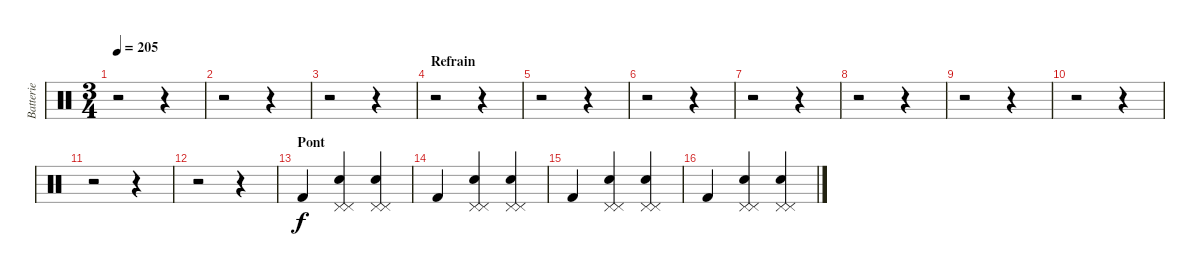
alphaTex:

\track ("Batterie" "Batterie") {instrument percussion}
\staff {score}
\articulation defaults
\ts (3 4)
\tempo 205
\clef neutral
\ks c
r.2{dy f} r.4 |
r.2 r.4 |
r.2 r.4 |
\section ("" "Refrain")
r.2 r.4 |
r.2 r.4 |
r.2 r.4 |
r.2 r.4 |
r.2 r.4 |
r.2 r.4 |
r.2 r.4 |
r.2 r.4 |
r.2 r.4 |
\section ("" "Pont")
"Kick (hit) 2".4 ("Pedal Hi-Hat (hit)" "Pedal Hi-Hat (hit)" "Snare (hit) 2").4 ("Pedal Hi-Hat (hit)" "Pedal Hi-Hat (hit)" "Snare (hit) 2").4 |
"Kick (hit) 2".4 ("Pedal Hi-Hat (hit)" "Pedal Hi-Hat (hit)" "Snare (hit) 2").4 ("Pedal Hi-Hat (hit)" "Pedal Hi-Hat (hit)" "Snare (hit) 2").4 |
"Kick (hit) 2".4 ("Pedal Hi-Hat (hit)" "Pedal Hi-Hat (hit)" "Snare (hit) 2").4 ("Pedal Hi-Hat (hit)" "Pedal Hi-Hat (hit)" "Snare (hit) 2").4 |
"Kick (hit) 2".4 ("Pedal Hi-Hat (hit)" "Pedal Hi-Hat (hit)" "Snare (hit) 2").4 ("Pedal Hi-Hat (hit)" "Pedal Hi-Hat (hit)" "Snare (hit) 2").4
